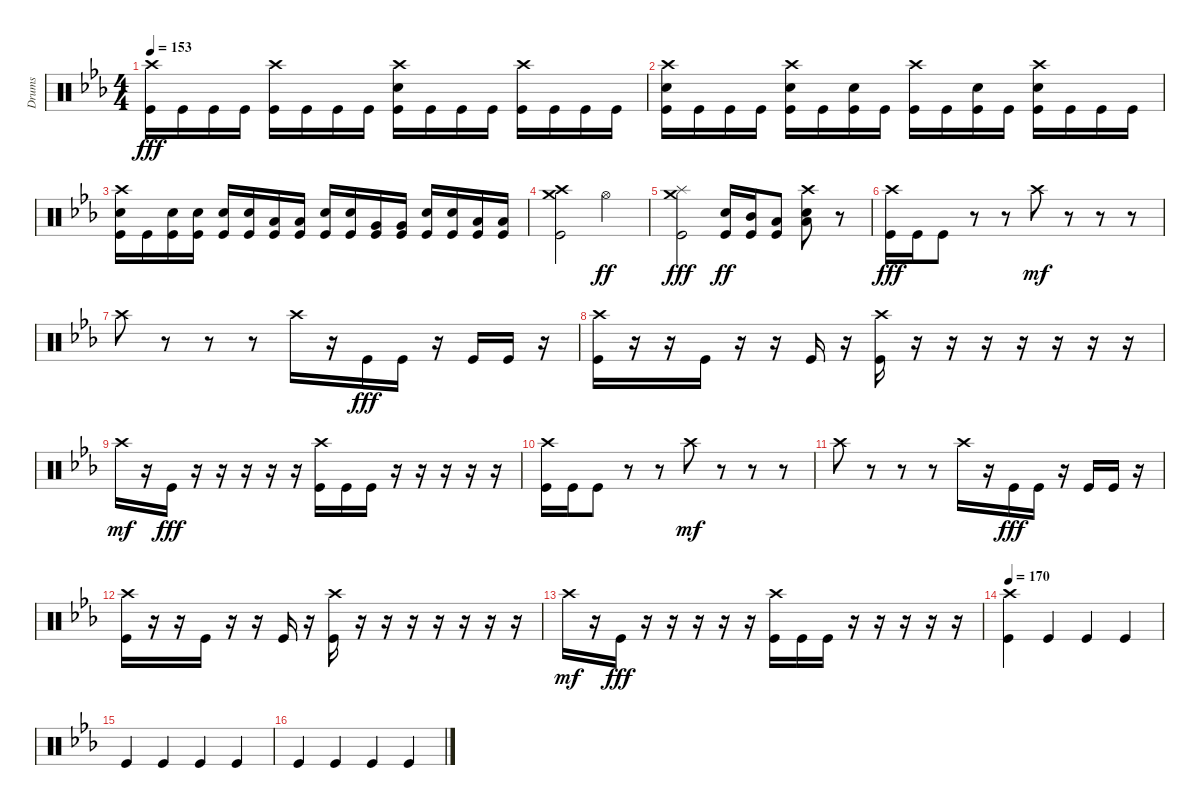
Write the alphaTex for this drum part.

\track ("Drums" "Drums") {instrument percussion}
\staff {score}
\articulation defaults
\ts (4 4)
\tempo 153
\clef neutral
\ks cminor
("Crash high (hit)" "Kick (hit)").16{dy fff} "Kick (hit)".16 "Kick (hit)".16 "Kick (hit)".16 ("Crash high (hit)" "Kick (hit)").16 "Kick (hit)".16 "Kick (hit)".16 "Kick (hit)".16 ("Crash high (hit)" "Snare (hit) 2" "Kick (hit)").16 "Kick (hit)".16 "Kick (hit)".16 "Kick (hit)".16 ("Crash high (hit)" "Kick (hit)").16 "Kick (hit)".16 "Kick (hit)".16 "Kick (hit)".16 |
("Crash high (hit)" "Snare (hit) 2" "Kick (hit)").16 "Kick (hit)".16 "Kick (hit)".16 "Kick (hit)".16 ("Crash high (hit)" "Snare (hit) 2" "Kick (hit)").16 "Kick (hit)".16 ("Snare (hit) 2" "Kick (hit)").16 "Kick (hit)".16 ("Crash high (hit)" "Kick (hit)").16 "Kick (hit)".16 ("Snare (hit) 2" "Kick (hit)").16 "Kick (hit)".16 ("Crash high (hit)" "Snare (hit) 2" "Kick (hit)").16 "Kick (hit)".16 "Kick (hit)".16 "Kick (hit)".16 |
("Crash high (hit)" "Snare (hit) 2" "Kick (hit)").16{volume 16} "Kick (hit)".16 ("Snare (hit) 2" "Kick (hit)").16 ("Snare (hit) 2" "Kick (hit)").16 ("Snare (hit) 2" "Kick (hit)").16 ("Snare (hit) 2" "Kick (hit)").16 ("Low Tom (hit)" "Kick (hit)").16 ("Low Tom (hit)" "Kick (hit)").16 ("Snare (hit) 2" "Kick (hit)").16 ("Snare (hit) 2" "Kick (hit)").16 ("Very Low Tom (hit)" "Kick (hit)").16 ("Very Low Tom (hit)" "Kick (hit)").16 ("Snare (hit) 2" "Kick (hit)").16 ("Snare (hit) 2" "Kick (hit)").16 ("Low Floor Tom (hit)" "Kick (hit)").16 ("Low Floor Tom (hit)" "Kick (hit)").16 |
("Crash medium (hit)" "Crash high (hit)" "Kick (hit)").2{volume 13} "Hi-Hat (open)".2{dy ff} |
("Crash medium (hit)" "Splash (hit)" "Kick (hit)").2{dy fff} ("Snare (hit) 2" "Kick (hit)").16{dy ff} ("Mid Tom (hit)" "Kick (hit)").16 ("Low Tom (hit)" "Kick (hit)").8 ("Snare (hit) 2" "Crash high (hit)" "Low Floor Tom (hit)").8 r.8 |
("Crash high (hit)" "Kick (hit)").16{dy fff} "Kick (hit)".16 "Kick (hit)".8 r.8 r.8 "Crash high (hit)".8{dy mf} r.8 r.8 r.8 |
"Crash high (hit)".8 r.8 r.8 r.8 "Crash high (hit)".16 r.16 "Kick (hit)".16{dy fff} "Kick (hit)".16 r.16 "Kick (hit)".16 "Kick (hit)".16 r.16 |
("Crash high (hit)" "Kick (hit)").16 r.16 r.16 "Kick (hit)".16 r.16 r.16 "Kick (hit)".16 r.16 ("Crash high (hit)" "Kick (hit)").16 r.16 r.16 r.16 r.16 r.16 r.16 r.16 |
"Crash high (hit)".16{dy mf} r.16 "Kick (hit)".16{dy fff} r.16 r.16 r.16 r.16 r.16 ("Crash high (hit)" "Kick (hit)").16 "Kick (hit)".16 "Kick (hit)".16 r.16 r.16 r.16 r.16 r.16 |
("Crash high (hit)" "Kick (hit)").16 "Kick (hit)".16 "Kick (hit)".8 r.8 r.8 "Crash high (hit)".8{dy mf} r.8 r.8 r.8 |
"Crash high (hit)".8 r.8 r.8 r.8 "Crash high (hit)".16 r.16 "Kick (hit)".16{dy fff} "Kick (hit)".16 r.16 "Kick (hit)".16 "Kick (hit)".16 r.16 |
("Crash high (hit)" "Kick (hit)").16 r.16 r.16 "Kick (hit)".16 r.16 r.16 "Kick (hit)".16 r.16 ("Crash high (hit)" "Kick (hit)").16 r.16 r.16 r.16 r.16 r.16 r.16 r.16 |
"Crash high (hit)".16{dy mf} r.16 "Kick (hit)".16{dy fff} r.16 r.16 r.16 r.16 r.16 ("Crash high (hit)" "Kick (hit)").16 "Kick (hit)".16 "Kick (hit)".16 r.16 r.16 r.16 r.16 r.16 |
\tempo 170
("Crash high (hit)" "Kick (hit)").4 "Kick (hit)".4 "Kick (hit)".4 "Kick (hit)".4 |
"Kick (hit)".4 "Kick (hit)".4 "Kick (hit)".4 "Kick (hit)".4 |
"Kick (hit)".4 "Kick (hit)".4 "Kick (hit)".4 "Kick (hit)".4
